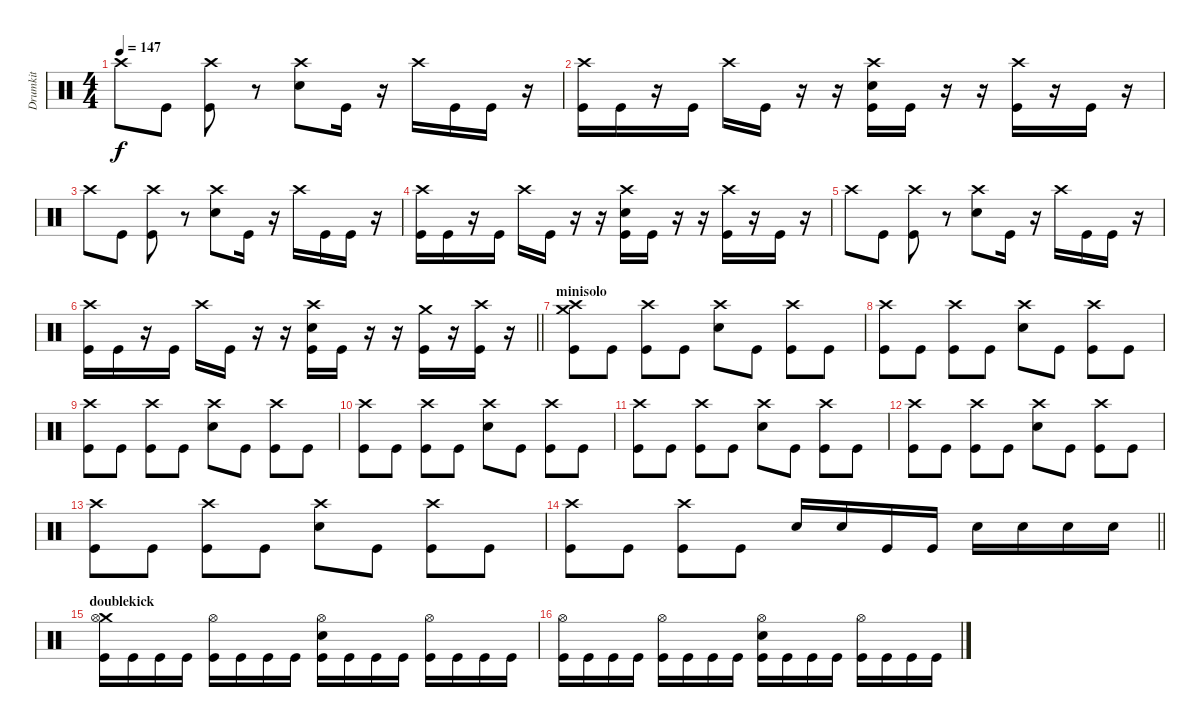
\track ("Drumkit" "Drumkit") {instrument percussion}
\staff {score}
\articulation defaults
\ts (4 4)
\tempo 147
\clef neutral
\ks c "Crash high (hit)".8{dy f} "Kick (hit)".8
("Crash high (hit)" "Kick (hit)").8 r.8 ("Crash high (hit)" "Snare (hit) 2").8 "Kick (hit)".16 r.16 "Crash high (hit)".16 "Kick (hit)".16 "Kick (hit)".16 r.16 |
("Crash high (hit)" "Kick (hit)").16 "Kick (hit)".16 r.16 "Kick (hit)".16 "Crash high (hit)".16 "Kick (hit)".16 r.16 r.16 ("Crash high (hit)" "Snare (hit) 2" "Kick (hit)").16 "Kick (hit)".16 r.16 r.16 ("Crash high (hit)" "Kick (hit)").16 r.16 "Kick (hit)".16 r.16 |
"Crash high (hit)".8 "Kick (hit)".8 ("Crash high (hit)" "Kick (hit)").8 r.8 ("Crash high (hit)" "Snare (hit) 2").8 "Kick (hit)".16 r.16 "Crash high (hit)".16 "Kick (hit)".16 "Kick (hit)".16 r.16 |
("Crash high (hit)" "Kick (hit)").16 "Kick (hit)".16 r.16 "Kick (hit)".16 "Crash high (hit)".16 "Kick (hit)".16 r.16 r.16 ("Crash high (hit)" "Snare (hit) 2" "Kick (hit)").16 "Kick (hit)".16 r.16 r.16 ("Crash high (hit)" "Kick (hit)").16 r.16 "Kick (hit)".16 r.16 |
"Crash high (hit)".8 "Kick (hit)".8 ("Crash high (hit)" "Kick (hit)").8 r.8 ("Crash high (hit)" "Snare (hit) 2").8 "Kick (hit)".16 r.16 "Crash high (hit)".16 "Kick (hit)".16 "Kick (hit)".16 r.16 |
\barLineRight lightlight
("Crash high (hit)" "Kick (hit)").16 "Kick (hit)".16 r.16 "Kick (hit)".16 "Crash high (hit)".16 "Kick (hit)".16 r.16 r.16 ("Crash high (hit)" "Snare (hit) 2" "Kick (hit)").16 "Kick (hit)".16 r.16 r.16 ("Crash medium (hit)" "Kick (hit)").16 r.16 ("Crash high (hit)" "Kick (hit)").16 r.16 |
\section ("" "minisolo")
("Crash medium (hit)" "Crash high (hit)" "Kick (hit)").8 "Kick (hit)".8 ("Crash high (hit)" "Kick (hit)").8 "Kick (hit)".8 ("Crash high (hit)" "Snare (hit) 2").8 "Kick (hit)".8 ("Crash high (hit)" "Kick (hit)").8 "Kick (hit)".8 |
("Crash high (hit)" "Kick (hit)").8 "Kick (hit)".8 ("Crash high (hit)" "Kick (hit)").8 "Kick (hit)".8 ("Crash high (hit)" "Snare (hit) 2").8 "Kick (hit)".8 ("Crash high (hit)" "Kick (hit)").8 "Kick (hit)".8 |
("Crash high (hit)" "Kick (hit)").8 "Kick (hit)".8 ("Crash high (hit)" "Kick (hit)").8 "Kick (hit)".8 ("Crash high (hit)" "Snare (hit) 2").8 "Kick (hit)".8 ("Crash high (hit)" "Kick (hit)").8 "Kick (hit)".8 |
("Crash high (hit)" "Kick (hit)").8 "Kick (hit)".8 ("Crash high (hit)" "Kick (hit)").8 "Kick (hit)".8 ("Crash high (hit)" "Snare (hit) 2").8 "Kick (hit)".8 ("Crash high (hit)" "Kick (hit)").8 "Kick (hit)".8 |
("Crash high (hit)" "Kick (hit)").8 "Kick (hit)".8 ("Crash high (hit)" "Kick (hit)").8 "Kick (hit)".8 ("Crash high (hit)" "Snare (hit) 2").8 "Kick (hit)".8 ("Crash high (hit)" "Kick (hit)").8 "Kick (hit)".8 |
("Crash high (hit)" "Kick (hit)").8 "Kick (hit)".8 ("Crash high (hit)" "Kick (hit)").8 "Kick (hit)".8 ("Crash high (hit)" "Snare (hit) 2").8 "Kick (hit)".8 ("Crash high (hit)" "Kick (hit)").8 "Kick (hit)".8 |
("Crash high (hit)" "Kick (hit)").8 "Kick (hit)".8 ("Crash high (hit)" "Kick (hit)").8 "Kick (hit)".8 ("Crash high (hit)" "Snare (hit) 2").8 "Kick (hit)".8 ("Crash high (hit)" "Kick (hit)").8 "Kick (hit)".8 |
\barLineRight lightlight
("Crash high (hit)" "Kick (hit)").8 "Kick (hit)".8 ("Crash high (hit)" "Kick (hit)").8 "Kick (hit)".8 "Snare (hit) 2".16 "Snare (hit) 2".16 "Kick (hit)".16 "Kick (hit)".16 "Snare (hit) 2".16 "Snare (hit) 2".16 "Snare (hit) 2".16 "Snare (hit) 2".16 |
\section ("" "doublekick")
("Crash medium (hit)" "Hi-Hat (open)" "Kick (hit)").16 "Kick (hit)".16 "Kick (hit)".16 "Kick (hit)".16 ("Hi-Hat (open)" "Kick (hit)").16 "Kick (hit)".16 "Kick (hit)".16 "Kick (hit)".16 ("Hi-Hat (open)" "Snare (hit) 2" "Kick (hit)").16 "Kick (hit)".16 "Kick (hit)".16 "Kick (hit)".16 ("Hi-Hat (open)" "Kick (hit)").16 "Kick (hit)".16 "Kick (hit)".16 "Kick (hit)".16 |
("Hi-Hat (open)" "Kick (hit)").16 "Kick (hit)".16 "Kick (hit)".16 "Kick (hit)".16 ("Hi-Hat (open)" "Kick (hit)").16 "Kick (hit)".16 "Kick (hit)".16 "Kick (hit)".16 ("Hi-Hat (open)" "Snare (hit) 2" "Kick (hit)").16 "Kick (hit)".16 "Kick (hit)".16 "Kick (hit)".16 ("Hi-Hat (open)" "Kick (hit)").16 "Kick (hit)".16 "Kick (hit)".16 "Kick (hit)".16
